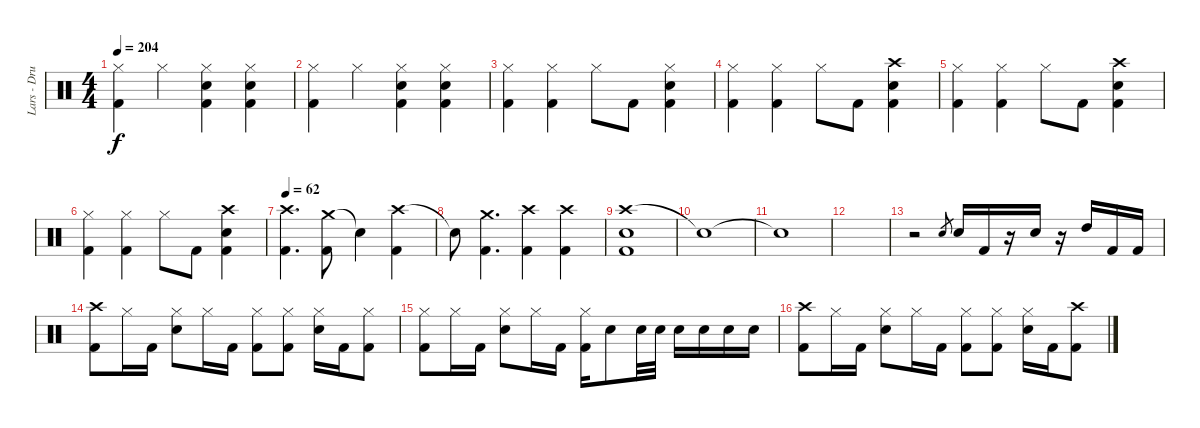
\track ("Lars - Drums" "Lars - Dru") {instrument percussion}
\staff {score}
\articulation defaults
\ts (4 4)
\tempo 204
\clef neutral
\ks c
("Hi-Hat (closed)" "Kick (hit) 2").4{dy f} "Hi-Hat (closed)".4 ("Hi-Hat (closed)" "Electric Snare (hit)" "Kick (hit) 2").4 ("Hi-Hat (closed)" "Electric Snare (hit)" "Kick (hit) 2").4 |
("Hi-Hat (closed)" "Kick (hit) 2").4 "Hi-Hat (closed)".4 ("Hi-Hat (closed)" "Electric Snare (hit)" "Kick (hit) 2").4 ("Hi-Hat (closed)" "Electric Snare (hit)" "Kick (hit) 2").4 |
("Hi-Hat (closed)" "Kick (hit) 2").4 ("Hi-Hat (closed)" "Kick (hit) 2").4 "Hi-Hat (closed)".8 "Kick (hit) 2".8 ("Hi-Hat (closed)" "Electric Snare (hit)" "Kick (hit) 2").4 |
("Hi-Hat (closed)" "Kick (hit) 2").4 ("Hi-Hat (closed)" "Kick (hit) 2").4 "Hi-Hat (closed)".8 "Kick (hit) 2".8 ("Crash high (hit)" "Electric Snare (hit)" "Kick (hit) 2").4 |
("Hi-Hat (closed)" "Kick (hit) 2").4 ("Hi-Hat (closed)" "Kick (hit) 2").4 "Hi-Hat (closed)".8 "Kick (hit) 2".8 ("Crash high (hit)" "Electric Snare (hit)" "Kick (hit) 2").4 |
("Hi-Hat (closed)" "Kick (hit) 2").4 ("Hi-Hat (closed)" "Kick (hit) 2").4 "Hi-Hat (closed)".8 "Kick (hit) 2".8 ("Crash high (hit)" "Electric Snare (hit)" "Kick (hit) 2").4 |
\tempo 62
("Crash high (hit)" "Kick (hit) 2").4{d} ("Crash medium (hit)" "Kick (hit) 2").8 "Snare (hit)"{t}.4 ("Crash high (hit)" "Kick (hit) 2").4 |
"Snare (hit)"{t}.8 ("Crash medium (hit)" "Kick (hit) 2").4{d} ("Crash high (hit)" "Kick (hit) 2").4 ("Crash high (hit)" "Kick (hit) 2").4 |
("Crash high (hit)" "Electric Snare (hit)" "Kick (hit) 2").1 |
"Snare (hit)"{t}.1 |
"Snare (hit)"{t}.1 |
|
r.2 "Electric Snare (hit)"{sl}.8{gr} "Electric Snare (hit)".16 "Kick (hit) 2".16 r.16 "Electric Snare (hit)".16 r.16 "High Tom (hit)".16 "Kick (hit) 2".16 "Kick (hit) 2".16 |
("Crash high (hit)" "Kick (hit) 2").8 "Hi-Hat (closed)".16 "Kick (hit) 2".16 ("Hi-Hat (closed)" "Electric Snare (hit)").8 "Hi-Hat (closed)".16 "Kick (hit) 2".16 ("Hi-Hat (closed)" "Kick (hit) 2").8 ("Hi-Hat (closed)" "Kick (hit) 2").8 ("Hi-Hat (closed)" "Electric Snare (hit)").16 "Kick (hit) 2".16 ("Hi-Hat (closed)" "Kick (hit) 2").8 |
("Hi-Hat (closed)" "Kick (hit) 2").8 "Hi-Hat (closed)".16 "Kick (hit) 2".16 ("Hi-Hat (closed)" "Electric Snare (hit)").8 "Hi-Hat (closed)".16 "Kick (hit) 2".16 ("Hi-Hat (closed)" "Kick (hit) 2").16 "Electric Snare (hit)".8 "Electric Snare (hit)".32 "Electric Snare (hit)".32 "Electric Snare (hit)".16 "Electric Snare (hit)".16 "Electric Snare (hit)".16 "Electric Snare (hit)".16 |
("Crash high (hit)" "Kick (hit) 2").8 "Hi-Hat (closed)".16 "Kick (hit) 2".16 ("Hi-Hat (closed)" "Electric Snare (hit)").8 "Hi-Hat (closed)".16 "Kick (hit) 2".16 ("Hi-Hat (closed)" "Kick (hit) 2").8 ("Hi-Hat (closed)" "Kick (hit) 2").8 ("Hi-Hat (closed)" "Electric Snare (hit)").16 "Kick (hit) 2".16 ("Crash high (hit)" "Kick (hit) 2").8
